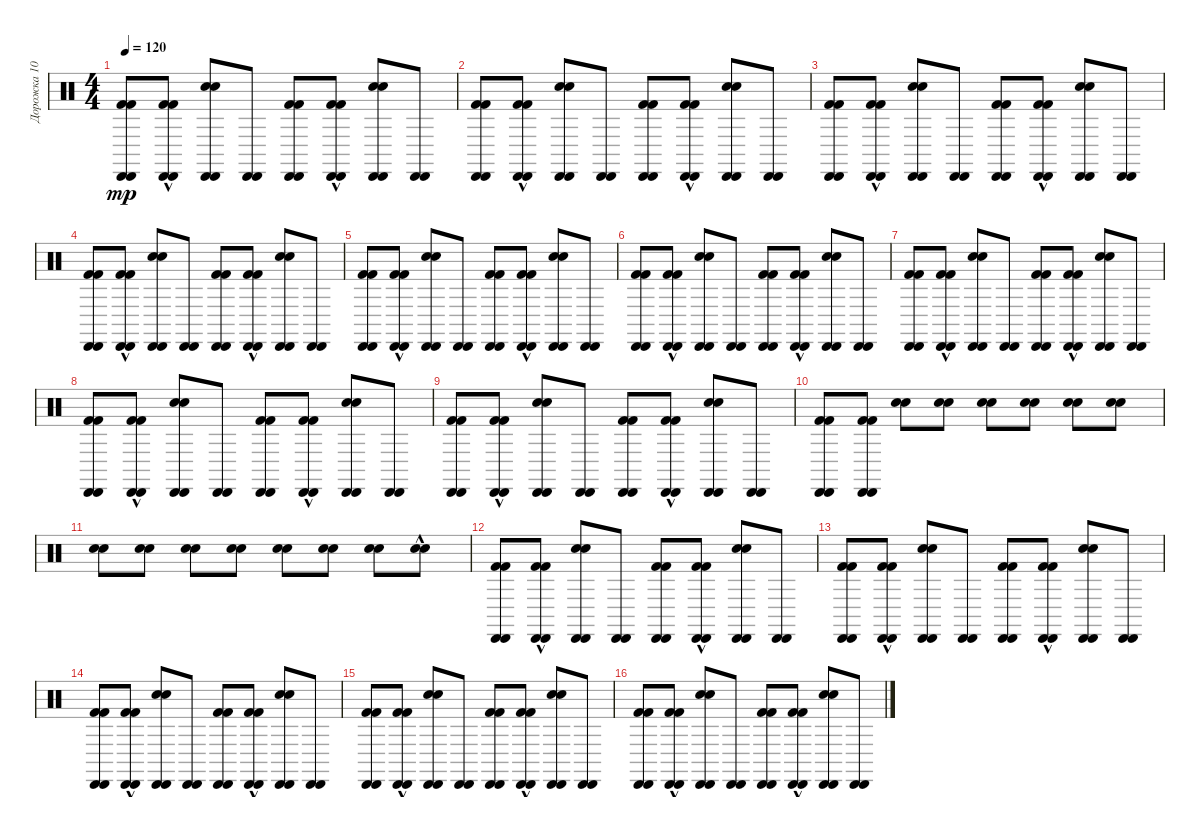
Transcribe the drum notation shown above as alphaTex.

\track ("Дорожка 10" "Дорожка 10") {instrument percussion}
\staff {score}
\articulation defaults
\ts (4 4)
\tempo 120
\clef neutral
\ks c
("Kick (hit) 2" "Cabasa (hit)" "Kick (hit) 2" "Cabasa (hit)").8{dy mp} ("Kick (hit) 2"{hac} "Cabasa (hit)" "Kick (hit) 2"{hac} "Cabasa (hit)").8 ("Snare (hit) 2" "Cabasa (hit)" "Snare (hit) 2" "Cabasa (hit)").8 ("Cabasa (hit)" "Cabasa (hit)").8 ("Kick (hit) 2" "Cabasa (hit)" "Kick (hit) 2" "Cabasa (hit)").8 ("Kick (hit) 2"{hac} "Cabasa (hit)" "Kick (hit) 2"{hac} "Cabasa (hit)").8 ("Snare (hit) 2" "Cabasa (hit)" "Snare (hit) 2" "Cabasa (hit)").8 ("Cabasa (hit)" "Cabasa (hit)").8 |
("Kick (hit) 2" "Cabasa (hit)" "Kick (hit) 2" "Cabasa (hit)").8 ("Kick (hit) 2"{hac} "Cabasa (hit)" "Kick (hit) 2"{hac} "Cabasa (hit)").8 ("Snare (hit) 2" "Cabasa (hit)" "Snare (hit) 2" "Cabasa (hit)").8 ("Cabasa (hit)" "Cabasa (hit)").8 ("Kick (hit) 2" "Cabasa (hit)" "Kick (hit) 2" "Cabasa (hit)").8 ("Kick (hit) 2"{hac} "Cabasa (hit)" "Kick (hit) 2"{hac} "Cabasa (hit)").8 ("Snare (hit) 2" "Cabasa (hit)" "Snare (hit) 2" "Cabasa (hit)").8 ("Cabasa (hit)" "Cabasa (hit)").8 |
("Kick (hit) 2" "Cabasa (hit)" "Kick (hit) 2" "Cabasa (hit)").8 ("Kick (hit) 2"{hac} "Cabasa (hit)" "Kick (hit) 2"{hac} "Cabasa (hit)").8 ("Snare (hit) 2" "Cabasa (hit)" "Snare (hit) 2" "Cabasa (hit)").8 ("Cabasa (hit)" "Cabasa (hit)").8 ("Kick (hit) 2" "Cabasa (hit)" "Kick (hit) 2" "Cabasa (hit)").8 ("Kick (hit) 2"{hac} "Cabasa (hit)" "Kick (hit) 2"{hac} "Cabasa (hit)").8 ("Snare (hit) 2" "Cabasa (hit)" "Snare (hit) 2" "Cabasa (hit)").8 ("Cabasa (hit)" "Cabasa (hit)").8 |
("Kick (hit) 2" "Cabasa (hit)" "Kick (hit) 2" "Cabasa (hit)").8 ("Kick (hit) 2"{hac} "Cabasa (hit)" "Kick (hit) 2"{hac} "Cabasa (hit)").8 ("Snare (hit) 2" "Cabasa (hit)" "Snare (hit) 2" "Cabasa (hit)").8 ("Cabasa (hit)" "Cabasa (hit)").8 ("Kick (hit) 2" "Cabasa (hit)" "Kick (hit) 2" "Cabasa (hit)").8 ("Kick (hit) 2"{hac} "Cabasa (hit)" "Kick (hit) 2"{hac} "Cabasa (hit)").8 ("Snare (hit) 2" "Cabasa (hit)" "Snare (hit) 2" "Cabasa (hit)").8 ("Cabasa (hit)" "Cabasa (hit)").8 |
("Kick (hit) 2" "Cabasa (hit)" "Kick (hit) 2" "Cabasa (hit)").8 ("Kick (hit) 2"{hac} "Cabasa (hit)" "Kick (hit) 2"{hac} "Cabasa (hit)").8 ("Snare (hit) 2" "Cabasa (hit)" "Snare (hit) 2" "Cabasa (hit)").8 ("Cabasa (hit)" "Cabasa (hit)").8 ("Kick (hit) 2" "Cabasa (hit)" "Kick (hit) 2" "Cabasa (hit)").8 ("Kick (hit) 2"{hac} "Cabasa (hit)" "Kick (hit) 2"{hac} "Cabasa (hit)").8 ("Snare (hit) 2" "Cabasa (hit)" "Snare (hit) 2" "Cabasa (hit)").8 ("Cabasa (hit)" "Cabasa (hit)").8 |
("Kick (hit) 2" "Cabasa (hit)" "Kick (hit) 2" "Cabasa (hit)").8 ("Kick (hit) 2"{hac} "Cabasa (hit)" "Kick (hit) 2"{hac} "Cabasa (hit)").8 ("Snare (hit) 2" "Cabasa (hit)" "Snare (hit) 2" "Cabasa (hit)").8 ("Cabasa (hit)" "Cabasa (hit)").8 ("Kick (hit) 2" "Cabasa (hit)" "Kick (hit) 2" "Cabasa (hit)").8 ("Kick (hit) 2"{hac} "Cabasa (hit)" "Kick (hit) 2"{hac} "Cabasa (hit)").8 ("Snare (hit) 2" "Cabasa (hit)" "Snare (hit) 2" "Cabasa (hit)").8 ("Cabasa (hit)" "Cabasa (hit)").8 |
("Kick (hit) 2" "Cabasa (hit)" "Kick (hit) 2" "Cabasa (hit)").8 ("Kick (hit) 2"{hac} "Cabasa (hit)" "Kick (hit) 2"{hac} "Cabasa (hit)").8 ("Snare (hit) 2" "Cabasa (hit)" "Snare (hit) 2" "Cabasa (hit)").8 ("Cabasa (hit)" "Cabasa (hit)").8 ("Kick (hit) 2" "Cabasa (hit)" "Kick (hit) 2" "Cabasa (hit)").8 ("Kick (hit) 2"{hac} "Cabasa (hit)" "Kick (hit) 2"{hac} "Cabasa (hit)").8 ("Snare (hit) 2" "Cabasa (hit)" "Snare (hit) 2" "Cabasa (hit)").8 ("Cabasa (hit)" "Cabasa (hit)").8 |
("Kick (hit) 2" "Cabasa (hit)" "Kick (hit) 2" "Cabasa (hit)").8 ("Kick (hit) 2"{hac} "Cabasa (hit)" "Kick (hit) 2"{hac} "Cabasa (hit)").8 ("Snare (hit) 2" "Cabasa (hit)" "Snare (hit) 2" "Cabasa (hit)").8 ("Cabasa (hit)" "Cabasa (hit)").8 ("Kick (hit) 2" "Cabasa (hit)" "Kick (hit) 2" "Cabasa (hit)").8 ("Kick (hit) 2"{hac} "Cabasa (hit)" "Kick (hit) 2"{hac} "Cabasa (hit)").8 ("Snare (hit) 2" "Cabasa (hit)" "Snare (hit) 2" "Cabasa (hit)").8 ("Cabasa (hit)" "Cabasa (hit)").8 |
("Kick (hit) 2" "Cabasa (hit)" "Kick (hit) 2" "Cabasa (hit)").8 ("Kick (hit) 2"{hac} "Cabasa (hit)" "Kick (hit) 2"{hac} "Cabasa (hit)").8 ("Snare (hit) 2" "Cabasa (hit)" "Snare (hit) 2" "Cabasa (hit)").8 ("Cabasa (hit)" "Cabasa (hit)").8 ("Kick (hit) 2" "Cabasa (hit)" "Kick (hit) 2" "Cabasa (hit)").8 ("Kick (hit) 2"{hac} "Cabasa (hit)" "Kick (hit) 2"{hac} "Cabasa (hit)").8 ("Snare (hit) 2" "Cabasa (hit)" "Snare (hit) 2" "Cabasa (hit)").8 ("Cabasa (hit)" "Cabasa (hit)").8 |
("Kick (hit) 2" "Cabasa (hit)" "Kick (hit) 2" "Cabasa (hit)").8 ("Kick (hit) 2" "Cabasa (hit)" "Kick (hit) 2" "Cabasa (hit)").8 ("Snare (hit) 2" "Snare (hit) 2").8 ("Snare (hit) 2" "Snare (hit) 2").8 ("Snare (hit) 2" "Snare (hit) 2").8 ("Snare (hit) 2" "Snare (hit) 2").8 ("Snare (hit) 2" "Snare (hit) 2").8 ("Snare (hit) 2" "Snare (hit) 2").8 |
("Snare (hit) 2" "Snare (hit) 2").8 ("Snare (hit) 2" "Snare (hit) 2").8 ("Snare (hit) 2" "Snare (hit) 2").8 ("Snare (hit) 2" "Snare (hit) 2").8 ("Snare (hit) 2" "Snare (hit) 2").8 ("Snare (hit) 2" "Snare (hit) 2").8 ("Snare (hit) 2" "Snare (hit) 2").8 ("Snare (hit) 2"{hac} "Snare (hit) 2"{hac}).8 |
("Kick (hit) 2" "Cabasa (hit)" "Kick (hit) 2" "Cabasa (hit)").8 ("Kick (hit) 2"{hac} "Cabasa (hit)" "Kick (hit) 2"{hac} "Cabasa (hit)").8 ("Snare (hit) 2" "Cabasa (hit)" "Snare (hit) 2" "Cabasa (hit)").8 ("Cabasa (hit)" "Cabasa (hit)").8 ("Kick (hit) 2" "Cabasa (hit)" "Kick (hit) 2" "Cabasa (hit)").8 ("Kick (hit) 2"{hac} "Cabasa (hit)" "Kick (hit) 2"{hac} "Cabasa (hit)").8 ("Snare (hit) 2" "Cabasa (hit)" "Snare (hit) 2" "Cabasa (hit)").8 ("Cabasa (hit)" "Cabasa (hit)").8 |
("Kick (hit) 2" "Cabasa (hit)" "Kick (hit) 2" "Cabasa (hit)").8 ("Kick (hit) 2"{hac} "Cabasa (hit)" "Kick (hit) 2"{hac} "Cabasa (hit)").8 ("Snare (hit) 2" "Cabasa (hit)" "Snare (hit) 2" "Cabasa (hit)").8 ("Cabasa (hit)" "Cabasa (hit)").8 ("Kick (hit) 2" "Cabasa (hit)" "Kick (hit) 2" "Cabasa (hit)").8 ("Kick (hit) 2"{hac} "Cabasa (hit)" "Kick (hit) 2"{hac} "Cabasa (hit)").8 ("Snare (hit) 2" "Cabasa (hit)" "Snare (hit) 2" "Cabasa (hit)").8 ("Cabasa (hit)" "Cabasa (hit)").8 |
("Kick (hit) 2" "Cabasa (hit)" "Kick (hit) 2" "Cabasa (hit)").8 ("Kick (hit) 2"{hac} "Cabasa (hit)" "Kick (hit) 2"{hac} "Cabasa (hit)").8 ("Snare (hit) 2" "Cabasa (hit)" "Snare (hit) 2" "Cabasa (hit)").8 ("Cabasa (hit)" "Cabasa (hit)").8 ("Kick (hit) 2" "Cabasa (hit)" "Kick (hit) 2" "Cabasa (hit)").8 ("Kick (hit) 2"{hac} "Cabasa (hit)" "Kick (hit) 2"{hac} "Cabasa (hit)").8 ("Snare (hit) 2" "Cabasa (hit)" "Snare (hit) 2" "Cabasa (hit)").8 ("Cabasa (hit)" "Cabasa (hit)").8 |
("Kick (hit) 2" "Cabasa (hit)" "Kick (hit) 2" "Cabasa (hit)").8 ("Kick (hit) 2"{hac} "Cabasa (hit)" "Kick (hit) 2"{hac} "Cabasa (hit)").8 ("Snare (hit) 2" "Cabasa (hit)" "Snare (hit) 2" "Cabasa (hit)").8 ("Cabasa (hit)" "Cabasa (hit)").8 ("Kick (hit) 2" "Cabasa (hit)" "Kick (hit) 2" "Cabasa (hit)").8 ("Kick (hit) 2"{hac} "Cabasa (hit)" "Kick (hit) 2"{hac} "Cabasa (hit)").8 ("Snare (hit) 2" "Cabasa (hit)" "Snare (hit) 2" "Cabasa (hit)").8 ("Cabasa (hit)" "Cabasa (hit)").8 |
("Kick (hit) 2" "Cabasa (hit)" "Kick (hit) 2" "Cabasa (hit)").8 ("Kick (hit) 2"{hac} "Cabasa (hit)" "Kick (hit) 2"{hac} "Cabasa (hit)").8 ("Snare (hit) 2" "Cabasa (hit)" "Snare (hit) 2" "Cabasa (hit)").8 ("Cabasa (hit)" "Cabasa (hit)").8 ("Kick (hit) 2" "Cabasa (hit)" "Kick (hit) 2" "Cabasa (hit)").8 ("Kick (hit) 2"{hac} "Cabasa (hit)" "Kick (hit) 2"{hac} "Cabasa (hit)").8 ("Snare (hit) 2" "Cabasa (hit)" "Snare (hit) 2" "Cabasa (hit)").8 ("Cabasa (hit)" "Cabasa (hit)").8
